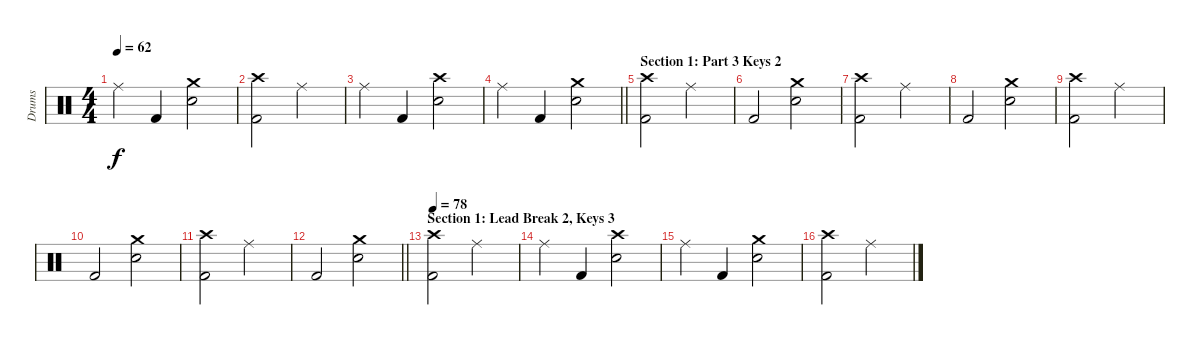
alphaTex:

\track ("Drums" "Drums") {instrument percussion}
\staff {score}
\articulation defaults
\ts (4 4)
\tempo 62
\clef neutral
\ks c "Ride (middle)".4{dy f} "Kick (hit) 2".4
("Crash medium (hit)" "Electric Snare (hit)").2 |
("Crash high (hit)" "Kick (hit) 2").2 "Ride (middle)".2 |
"Ride (middle)".4 "Kick (hit) 2".4 ("Crash high (hit)" "Electric Snare (hit)").2 |
\barLineRight lightlight "Ride (middle)".4 "Kick (hit) 2".4
("Crash medium (hit)" "Electric Snare (hit)").2 |
\section ("" "Section 1: Part 3 Keys 2")
("Crash high (hit)" "Kick (hit) 2").2 "Ride (middle)".2 |
"Kick (hit) 2".2 ("Crash medium (hit)" "Electric Snare (hit)").2 |
("Crash high (hit)" "Kick (hit) 2").2 "Ride (middle)".2 |
"Kick (hit) 2".2 ("Crash medium (hit)" "Electric Snare (hit)").2 |
("Crash high (hit)" "Kick (hit) 2").2 "Ride (middle)".2 |
"Kick (hit) 2".2 ("Crash medium (hit)" "Electric Snare (hit)").2 |
("Crash high (hit)" "Kick (hit) 2").2 "Ride (middle)".2 |
\barLineRight lightlight "Kick (hit) 2".2
("Crash medium (hit)" "Electric Snare (hit)").2 |
\section ("" "Section 1: Lead Break 2, Keys 3")
\tempo 78
("Crash high (hit)" "Kick (hit) 2").2 "Ride (middle)".2 |
"Ride (middle)".4 "Kick (hit) 2".4 ("Crash high (hit)" "Electric Snare (hit)").2 |
"Ride (middle)".4 "Kick (hit) 2".4 ("Crash medium (hit)" "Electric Snare (hit)").2 |
("Crash high (hit)" "Kick (hit) 2").2 "Ride (middle)".2
